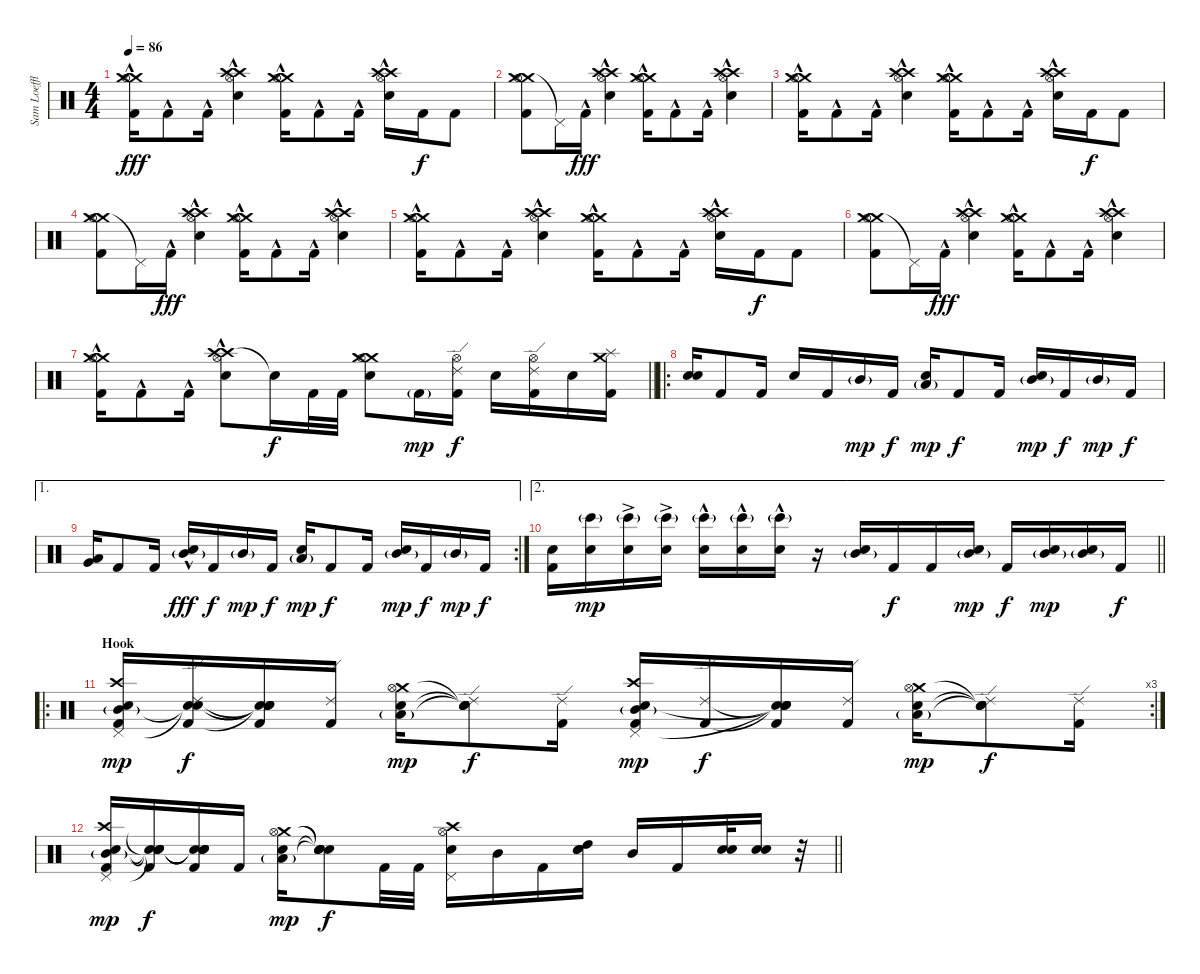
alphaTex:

\track ("Sam Loeffler- Drums" "Sam Loeffl") {instrument percussion}
\staff {score}
\articulation defaults
\ts (4 4)
\tempo 86
\clef neutral
\ks c
("Crash medium (hit)" "Crash medium (hit)" "Hi-Hat (open)" "Kick (hit) 2"{hac}).16{dy fff} "Kick (hit) 2"{hac}.8 "Kick (hit) 2"{hac}.16 ("Crash high (hit)" "Crash high (hit)" "Hi-Hat (open)" "Electric Snare (hit)"{hac}).4 ("Crash medium (hit)" "Crash medium (hit)" "Hi-Hat (open)" "Kick (hit) 2"{hac}).16 "Kick (hit) 2"{hac}.8 "Kick (hit) 2"{hac}.16 ("Crash high (hit)" "Crash high (hit)" "Hi-Hat (open)" "Electric Snare (hit)"{hac}).16 "Kick (hit) 2".16{dy f} "Kick (hit) 2".8 |
("Crash medium (hit)" "Crash medium (hit)" "Hi-Hat (open)" "Kick (hit) 2").8 "Pedal Hi-Hat (hit)"{t}.16 "Kick (hit) 2"{hac}.16{dy fff} ("Crash high (hit)" "Crash high (hit)" "Hi-Hat (open)" "Electric Snare (hit)"{hac}).4 ("Crash medium (hit)" "Crash medium (hit)" "Hi-Hat (open)" "Kick (hit) 2"{hac}).16 "Kick (hit) 2"{hac}.8 "Kick (hit) 2"{hac}.16 ("Crash high (hit)" "Crash high (hit)" "Hi-Hat (open)" "Electric Snare (hit)"{hac}).4 |
("Crash medium (hit)" "Crash medium (hit)" "Hi-Hat (open)" "Kick (hit) 2"{hac}).16 "Kick (hit) 2"{hac}.8 "Kick (hit) 2"{hac}.16 ("Crash high (hit)" "Crash high (hit)" "Hi-Hat (open)" "Electric Snare (hit)"{hac}).4 ("Crash medium (hit)" "Crash medium (hit)" "Hi-Hat (open)" "Kick (hit) 2"{hac}).16 "Kick (hit) 2"{hac}.8 "Kick (hit) 2"{hac}.16 ("Crash high (hit)" "Crash high (hit)" "Hi-Hat (open)" "Electric Snare (hit)"{hac}).16 "Kick (hit) 2".16{dy f} "Kick (hit) 2".8 |
("Crash medium (hit)" "Crash medium (hit)" "Hi-Hat (open)" "Kick (hit) 2").8 "Pedal Hi-Hat (hit)"{t}.16 "Kick (hit) 2"{hac}.16{dy fff} ("Crash high (hit)" "Crash high (hit)" "Hi-Hat (open)" "Electric Snare (hit)"{hac}).4 ("Crash medium (hit)" "Crash medium (hit)" "Hi-Hat (open)" "Kick (hit) 2"{hac}).16 "Kick (hit) 2"{hac}.8 "Kick (hit) 2"{hac}.16 ("Crash high (hit)" "Crash high (hit)" "Hi-Hat (open)" "Electric Snare (hit)"{hac}).4 |
("Crash medium (hit)" "Crash medium (hit)" "Hi-Hat (open)" "Kick (hit) 2"{hac}).16 "Kick (hit) 2"{hac}.8 "Kick (hit) 2"{hac}.16 ("Crash high (hit)" "Crash high (hit)" "Hi-Hat (open)" "Electric Snare (hit)"{hac}).4 ("Crash medium (hit)" "Crash medium (hit)" "Hi-Hat (open)" "Kick (hit) 2"{hac}).16 "Kick (hit) 2"{hac}.8 "Kick (hit) 2"{hac}.16 ("Crash high (hit)" "Crash high (hit)" "Hi-Hat (open)" "Electric Snare (hit)"{hac}).16 "Kick (hit) 2".16{dy f} "Kick (hit) 2".8 |
("Crash medium (hit)" "Crash medium (hit)" "Hi-Hat (open)" "Kick (hit) 2").8 "Pedal Hi-Hat (hit)"{t}.16 "Kick (hit) 2"{hac}.16{dy fff} ("Crash high (hit)" "Crash high (hit)" "Hi-Hat (open)" "Electric Snare (hit)"{hac}).4 ("Crash medium (hit)" "Crash medium (hit)" "Hi-Hat (open)" "Kick (hit) 2"{hac}).16 "Kick (hit) 2"{hac}.8 "Kick (hit) 2"{hac}.16 ("Crash high (hit)" "Crash high (hit)" "Hi-Hat (open)" "Electric Snare (hit)"{hac}).4 |
\barLineRight lightlight
("Crash medium (hit)" "Crash medium (hit)" "Hi-Hat (open)" "Kick (hit) 2"{hac}).16 "Kick (hit) 2"{hac}.8 "Kick (hit) 2"{hac}.16 ("Crash high (hit)" "Crash high (hit)" "Hi-Hat (open)" "Electric Snare (hit)"{hac}).8 "Snare (hit)"{t}.16{dy f} "Kick (hit) 2".32 "Kick (hit) 2".32 ("Crash medium (hit)" "Crash medium (hit)" "Hi-Hat (open)" "Electric Snare (hit)").8 "Kick (hit) 2"{g}.16{dy mp} ("Ride (edge) 2" "Hi-Hat (open)" "Kick (hit) 2").16{dy f} "Electric Snare (hit)".16 ("Ride (edge) 2" "Hi-Hat (open)" "Kick (hit) 2").16 "Electric Snare (hit)".16 ("Crash medium (hit)" "Splash (hit)" "Kick (hit) 2").16 |
\ro
("Electric Snare (hit)" "Snare (hit) 2").16 "Kick (hit) 2".8 "Kick (hit) 2".16 "Electric Snare (hit)".16 "Kick (hit) 2".16 "Mid Tom (hit)"{g}.16{dy mp} "Kick (hit) 2".16{dy f} ("Low Tom (hit)"{g} "Electric Snare (hit)").16{dy mp} "Kick (hit) 2".8{dy f} "Kick (hit) 2".16 ("Mid Tom (hit)"{g} "Electric Snare (hit)").16{dy mp} "Kick (hit) 2".16{dy f} "Mid Tom (hit)"{g}.16{dy mp} "Kick (hit) 2".16{dy f} |
\ae 1
\rc 2
("Low Tom (hit)" "Very Low Tom (hit)").16 "Kick (hit) 2".8 "Kick (hit) 2".16 ("Mid Tom (hit)"{g} "Electric Snare (hit)"{hac}).16{dy fff} "Kick (hit) 2".16{dy f} "Mid Tom (hit)"{g}.16{dy mp} "Kick (hit) 2".16{dy f} ("Low Tom (hit)"{g} "Electric Snare (hit)").16{dy mp} "Kick (hit) 2".8{dy f} "Kick (hit) 2".16 ("Mid Tom (hit)"{g} "Electric Snare (hit)").16{dy mp} "Kick (hit) 2".16{dy f} "Mid Tom (hit)"{g}.16{dy mp} "Kick (hit) 2".16{dy f} |
\ae 2
\barLineRight lightlight
("Electric Snare (hit)" "Kick (hit) 2").16 ("Electric Snare (hit)" "Bongo High (hit)"{g}).16{dy mp} ("Electric Snare (hit)"{ac} "Bongo High (hit)"{g}).16 ("Electric Snare (hit)"{ac} "Bongo High (hit)"{g}).16 ("Electric Snare (hit)"{hac} "Bongo High (hit)"{g}).16 ("Electric Snare (hit)"{hac} "Bongo High (hit)"{g}).16 ("Electric Snare (hit)"{hac} "Bongo High (hit)"{g}).16 r.16 ("Mid Tom (hit)"{g} "Electric Snare (hit)").16 "Kick (hit) 2".16{dy f} "Kick (hit) 2".16 ("Mid Tom (hit)"{g} "Electric Snare (hit)").16{dy mp} "Kick (hit) 2".16{dy f} ("Mid Tom (hit)"{g} "Electric Snare (hit)").16{dy mp} ("Mid Tom (hit)"{g} "Electric Snare (hit)").16 "Kick (hit) 2".16{dy f} |
\ro
\rc 3
\section ("" "Hook")
("Crash high (hit)" "Mid Tom (hit)"{g} "Pedal Hi-Hat (hit)" "Electric Snare (hit)" "Kick (hit) 2").16{dy mp} ("Ride (edge) 2" "Snare (hit)"{t} "Snare (hit)"{t} "Kick (hit) 2").16{dy f} ("Snare (hit)"{t} "Snare (hit)"{t} "Snare (hit)"{t} "Snare (hit)"{t} "Kick (hit) 2").16 ("Ride (edge) 2" "Kick (hit) 2").16 ("Crash medium (hit)" "Hi-Hat (open)" "Low Tom (hit)"{g} "Electric Snare (hit)").16{dy mp} ("Ride (edge) 2" "Snare (hit)"{t} "Snare (hit)"{t} "Snare (hit)"{t}).8{dy f} ("Ride (edge) 2" "Kick (hit) 2").16 ("Crash high (hit)" "Mid Tom (hit)"{g} "Pedal Hi-Hat (hit)" "Electric Snare (hit)" "Kick (hit) 2").16{dy mp} ("Ride (edge) 2" "Kick (hit) 2").16{dy f} ("Snare (hit)"{t} "Snare (hit)"{t} "Snare (hit)"{t} "Snare (hit)"{t} "Kick (hit) 2").16 ("Ride (edge) 2" "Kick (hit) 2").16 ("Crash medium (hit)" "Hi-Hat (open)" "Low Tom (hit)"{g} "Electric Snare (hit)").16{dy mp} ("Ride (edge) 2" "Snare (hit)"{t} "Snare (hit)"{t} "Snare (hit)"{t}).8{dy f} ("Ride (edge) 2" "Kick (hit) 2").16 |
\barLineRight lightlight
("Crash high (hit)" "Mid Tom (hit)"{g} "Pedal Hi-Hat (hit)" "Electric Snare (hit)" "Kick (hit) 2").16{dy mp} ("Snare (hit)"{t} "Snare (hit)"{t} "Snare (hit)"{t} "Snare (hit)"{t} "Kick (hit) 2").16{dy f} ("Snare (hit)"{t} "Snare (hit)"{t} "Snare (hit)"{t} "Snare (hit)"{t} "Kick (hit) 2").16 "Kick (hit) 2".16 ("Crash medium (hit)" "Hi-Hat (open)" "Low Tom (hit)"{g} "Electric Snare (hit)").16{dy mp} ("Snare (hit)"{t} "Snare (hit)"{t} "Snare (hit)"{t} "Snare (hit)"{t}).8{dy f} "Kick (hit) 2".32 "Kick (hit) 2".32 ("Crash high (hit)" "Hi-Hat (open)" "Pedal Hi-Hat (hit)" "Electric Snare (hit)").16 "Mid Tom (hit)".16 "Kick (hit) 2".16 ("High Tom (hit)" "Electric Snare (hit)" "Electric Snare (hit)").16 "Mid Tom (hit)".16 "Kick (hit) 2".16 ("Electric Snare (hit)" "Electric Snare (hit)").32 ("Electric Snare (hit)" "Electric Snare (hit)").16 r.32
